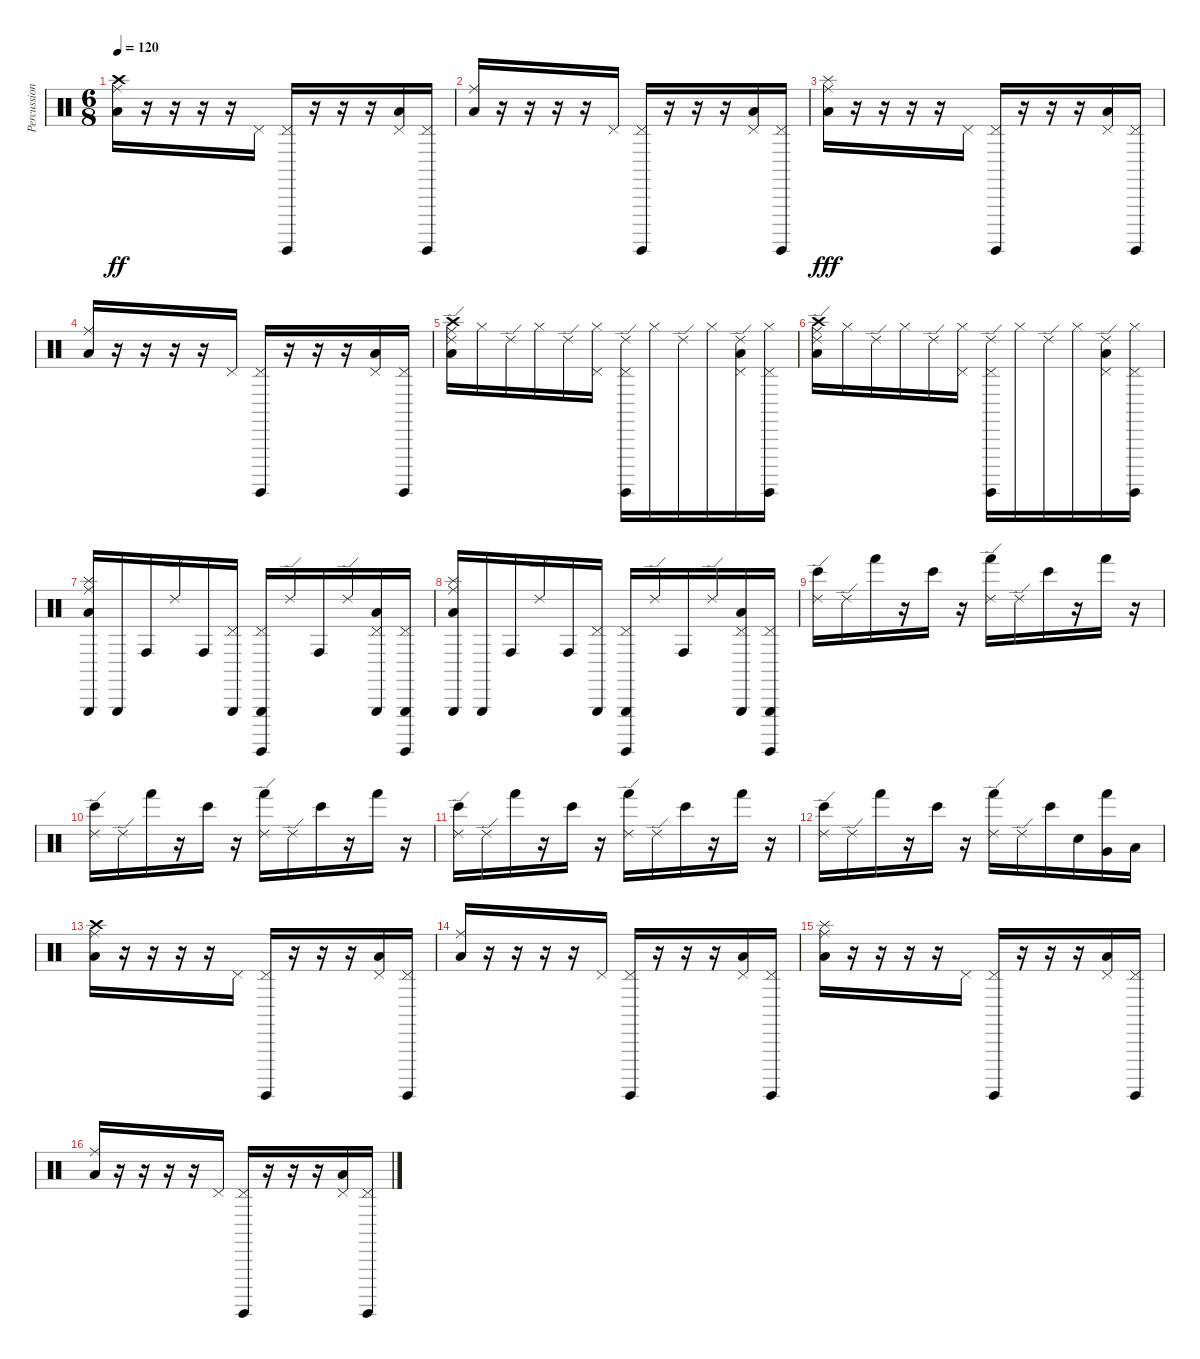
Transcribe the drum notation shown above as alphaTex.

\track ("Percussions" "Percussion") {instrument percussion}
\staff {score}
\articulation defaults
\ts (6 8)
\tempo 120
\clef neutral
\ks c
("Low Tom (hit)" "Ride (middle)" "Crash high (hit)").16{dy ff} r.16 r.16 r.16 r.16 "Pedal Hi-Hat (hit)".16 ("Surdo (hit)" "Pedal Hi-Hat (hit)").16 r.16 r.16 r.16 ("Low Tom (hit)" "Pedal Hi-Hat (hit)").16 ("Surdo (hit)" "Pedal Hi-Hat (hit)").16 |
("Low Tom (hit)" "Ride (middle)").16 r.16 r.16 r.16 r.16 "Pedal Hi-Hat (hit)".16 ("Surdo (hit)" "Pedal Hi-Hat (hit)").16 r.16 r.16 r.16 ("Low Tom (hit)" "Pedal Hi-Hat (hit)").16 ("Surdo (hit)" "Pedal Hi-Hat (hit)").16 |
("Low Tom (hit)" "Ride (middle)" "Splash (hit)").16{dy fff} r.16 r.16 r.16 r.16 "Pedal Hi-Hat (hit)".16 ("Surdo (hit)" "Pedal Hi-Hat (hit)").16 r.16 r.16 r.16 ("Low Tom (hit)" "Pedal Hi-Hat (hit)").16 ("Surdo (hit)" "Pedal Hi-Hat (hit)").16 |
("Low Tom (hit)" "Ride (middle)").16 r.16 r.16 r.16 r.16 "Pedal Hi-Hat (hit)".16 ("Surdo (hit)" "Pedal Hi-Hat (hit)").16 r.16 r.16 r.16 ("Low Tom (hit)" "Pedal Hi-Hat (hit)").16 ("Surdo (hit)" "Pedal Hi-Hat (hit)").16 |
("Low Tom (hit)" "Ride (middle)" "Ride (edge) 2" "Crash high (hit)").16 "Hi-Hat (closed)".16 "Ride (edge) 2".16 "Hi-Hat (closed)".16 "Ride (edge) 2".16 ("Pedal Hi-Hat (hit)" "Hi-Hat (closed)").16 ("Surdo (hit)" "Pedal Hi-Hat (hit)" "Ride (edge) 2").16 "Hi-Hat (closed)".16 "Ride (edge) 2".16 "Hi-Hat (closed)".16 ("Low Tom (hit)" "Pedal Hi-Hat (hit)" "Ride (edge) 2").16 ("Surdo (hit)" "Pedal Hi-Hat (hit)" "Hi-Hat (closed)").16 |
("Low Tom (hit)" "Ride (middle)" "Ride (edge) 2" "Crash high (hit)").16 "Hi-Hat (closed)".16 "Ride (edge) 2".16 "Hi-Hat (closed)".16 "Ride (edge) 2".16 ("Pedal Hi-Hat (hit)" "Hi-Hat (closed)").16 ("Surdo (hit)" "Pedal Hi-Hat (hit)" "Ride (edge) 2").16 "Hi-Hat (closed)".16 "Ride (edge) 2".16 "Hi-Hat (closed)".16 ("Low Tom (hit)" "Pedal Hi-Hat (hit)" "Ride (edge) 2").16 ("Surdo (hit)" "Pedal Hi-Hat (hit)" "Hi-Hat (closed)").16 |
("Low Tom (hit)" "Ride (middle)" "Triangle (hit)" "Splash (hit)").16 "Triangle (hit)".16 "Conga high (hit)".16 "Ride (edge) 2".16 "Conga high (hit)".16 ("Pedal Hi-Hat (hit)" "Triangle (hit)").16 ("Surdo (hit)" "Pedal Hi-Hat (hit)" "Triangle (hit)").16 "Ride (edge) 2".16 "Conga high (hit)".16 "Ride (edge) 2".16 ("Low Tom (hit)" "Pedal Hi-Hat (hit)" "Triangle (hit)").16 ("Surdo (hit)" "Pedal Hi-Hat (hit)" "Triangle (hit)").16 |
("Low Tom (hit)" "Ride (middle)" "Triangle (hit)" "Splash (hit)").16 "Triangle (hit)".16 "Conga high (hit)".16 "Ride (edge) 2".16 "Conga high (hit)".16 ("Pedal Hi-Hat (hit)" "Triangle (hit)").16 ("Surdo (hit)" "Pedal Hi-Hat (hit)" "Triangle (hit)").16 "Ride (edge) 2".16 "Conga high (hit)".16 "Ride (edge) 2".16 ("Low Tom (hit)" "Pedal Hi-Hat (hit)" "Triangle (hit)").16 ("Surdo (hit)" "Pedal Hi-Hat (hit)" "Triangle (hit)").16 |
("Ride (edge) 2" "Bongo High (hit)").16 "Ride (edge) 2".16 "Hand (hit)".16 r.16 "Bongo High (hit)".16 r.16 ("Ride (edge) 2" "Hand (hit)").16 "Ride (edge) 2".16 "Bongo High (hit)".16 r.16 "Hand (hit)".16 r.16 |
("Ride (edge) 2" "Bongo High (hit)").16 "Ride (edge) 2".16 "Hand (hit)".16 r.16 "Bongo High (hit)".16 r.16 ("Ride (edge) 2" "Hand (hit)").16 "Ride (edge) 2".16 "Bongo High (hit)".16 r.16 "Hand (hit)".16 r.16 |
("Ride (edge) 2" "Bongo High (hit)").16 "Ride (edge) 2".16 "Hand (hit)".16 r.16 "Bongo High (hit)".16 r.16 ("Ride (edge) 2" "Hand (hit)").16 "Ride (edge) 2".16 "Bongo High (hit)".16 r.16 "Hand (hit)".16 r.16 |
("Ride (edge) 2" "Bongo High (hit)").16 "Ride (edge) 2".16 "Hand (hit)".16 r.16 "Bongo High (hit)".16 r.16 ("Ride (edge) 2" "Hand (hit)").16 "Ride (edge) 2".16 "Bongo High (hit)".16 "Electric Snare (hit)".16 ("Very Low Tom (hit)" "Hand (hit)").16 "Low Tom (hit)".16 |
("Low Tom (hit)" "Ride (middle)" "Crash high (hit)").16 r.16 r.16 r.16 r.16 "Pedal Hi-Hat (hit)".16 ("Surdo (hit)" "Pedal Hi-Hat (hit)").16 r.16 r.16 r.16 ("Low Tom (hit)" "Pedal Hi-Hat (hit)").16 ("Surdo (hit)" "Pedal Hi-Hat (hit)").16 |
("Low Tom (hit)" "Ride (middle)").16 r.16 r.16 r.16 r.16 "Pedal Hi-Hat (hit)".16 ("Surdo (hit)" "Pedal Hi-Hat (hit)").16 r.16 r.16 r.16 ("Low Tom (hit)" "Pedal Hi-Hat (hit)").16 ("Surdo (hit)" "Pedal Hi-Hat (hit)").16 |
("Low Tom (hit)" "Ride (middle)" "Splash (hit)").16 r.16 r.16 r.16 r.16 "Pedal Hi-Hat (hit)".16 ("Surdo (hit)" "Pedal Hi-Hat (hit)").16 r.16 r.16 r.16 ("Low Tom (hit)" "Pedal Hi-Hat (hit)").16 ("Surdo (hit)" "Pedal Hi-Hat (hit)").16 |
("Low Tom (hit)" "Ride (middle)").16 r.16 r.16 r.16 r.16 "Pedal Hi-Hat (hit)".16 ("Surdo (hit)" "Pedal Hi-Hat (hit)").16 r.16 r.16 r.16 ("Low Tom (hit)" "Pedal Hi-Hat (hit)").16 ("Surdo (hit)" "Pedal Hi-Hat (hit)").16
